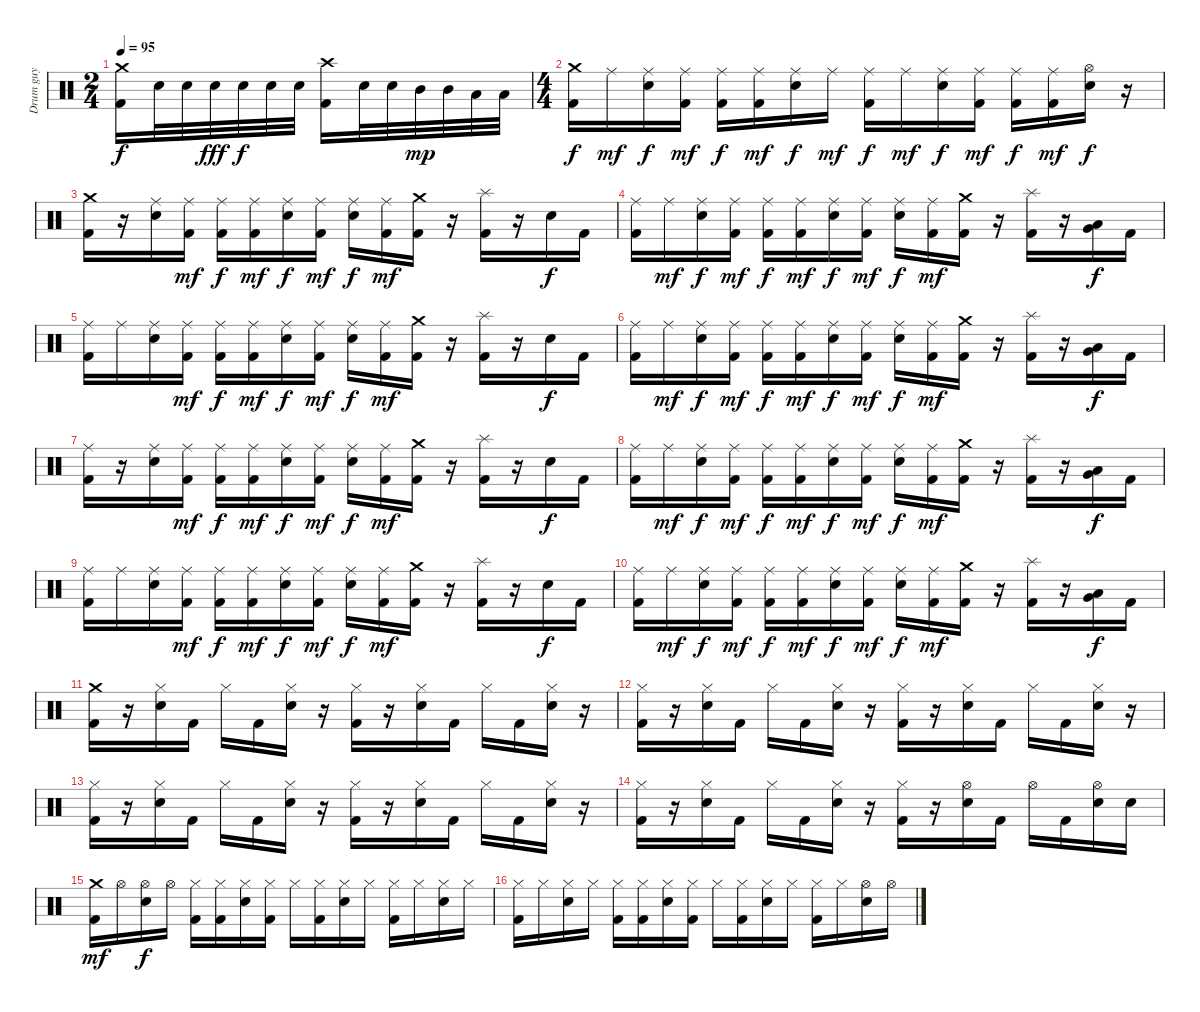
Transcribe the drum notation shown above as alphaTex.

\track ("Drum guy" "Drum guy") {instrument percussion}
\staff {score}
\articulation defaults
\ts (2 4)
\tempo 95
\clef neutral
\ks c
("Crash medium (hit)" "Kick (hit) 2").16{dy f} "Electric Snare (hit)".32 "Electric Snare (hit)".32 "Electric Snare (hit)".32{dy fff} "Electric Snare (hit)".32{dy f} "Electric Snare (hit)".32 "Electric Snare (hit)".32 ("Crash high (hit)" "Kick (hit) 2").16 "Electric Snare (hit)".32 "Electric Snare (hit)".32 "Mid Tom (hit)".32{dy mp} "Mid Tom (hit)".32 "Low Tom (hit)".32 "Low Tom (hit)".32 |
\ts (4 4)
("Crash medium (hit)" "Kick (hit) 2").16{dy f} "Ride (middle)".16{dy mf} ("Ride (middle)" "Electric Snare (hit)").16{dy f} ("Ride (middle)" "Kick (hit) 2").16{dy mf} ("Ride (middle)" "Kick (hit) 2").16{dy f} ("Ride (middle)" "Kick (hit) 2").16{dy mf} ("Ride (middle)" "Electric Snare (hit)").16{dy f} "Ride (middle)".16{dy mf} ("Ride (middle)" "Kick (hit) 2").16{dy f} "Ride (middle)".16{dy mf} ("Ride (middle)" "Electric Snare (hit)").16{dy f} ("Ride (middle)" "Kick (hit) 2").16{dy mf} ("Ride (middle)" "Kick (hit) 2").16{dy f} ("Ride (middle)" "Kick (hit) 2").16{dy mf} ("Hi-Hat (open)" "Electric Snare (hit)").16{dy f} r.16 |
("Crash medium (hit)" "Kick (hit) 2").16 r.16 ("Ride (middle)" "Electric Snare (hit)").16 ("Ride (middle)" "Kick (hit) 2").16{dy mf} ("Ride (middle)" "Kick (hit) 2").16{dy f} ("Ride (middle)" "Kick (hit) 2").16{dy mf} ("Ride (middle)" "Electric Snare (hit)").16{dy f} ("Ride (middle)" "Kick (hit) 2").16{dy mf} ("Ride (middle)" "Electric Snare (hit)").16{dy f} ("Ride (middle)" "Kick (hit) 2").16{dy mf} ("Crash medium (hit)" "Kick (hit) 2").16 r.16 ("Splash (hit)" "Kick (hit) 2").16 r.16 "Electric Snare (hit)".16{dy f} "Kick (hit) 2".16 |
("Ride (middle)" "Kick (hit) 2").16 "Ride (middle)".16{dy mf} ("Ride (middle)" "Electric Snare (hit)").16{dy f} ("Ride (middle)" "Kick (hit) 2").16{dy mf} ("Ride (middle)" "Kick (hit) 2").16{dy f} ("Ride (middle)" "Kick (hit) 2").16{dy mf} ("Ride (middle)" "Electric Snare (hit)").16{dy f} ("Ride (middle)" "Kick (hit) 2").16{dy mf} ("Ride (middle)" "Electric Snare (hit)").16{dy f} ("Ride (middle)" "Kick (hit) 2").16{dy mf} ("Crash medium (hit)" "Kick (hit) 2").16 r.16 ("Splash (hit)" "Kick (hit) 2").16 r.16 ("Low Tom (hit)" "Very Low Tom (hit)").16{dy f} "Kick (hit) 2".16 |
("Ride (middle)" "Kick (hit) 2").16 "Ride (middle)".16 ("Ride (middle)" "Electric Snare (hit)").16 ("Ride (middle)" "Kick (hit) 2").16{dy mf} ("Ride (middle)" "Kick (hit) 2").16{dy f} ("Ride (middle)" "Kick (hit) 2").16{dy mf} ("Ride (middle)" "Electric Snare (hit)").16{dy f} ("Ride (middle)" "Kick (hit) 2").16{dy mf} ("Ride (middle)" "Electric Snare (hit)").16{dy f} ("Ride (middle)" "Kick (hit) 2").16{dy mf} ("Crash medium (hit)" "Kick (hit) 2").16 r.16 ("Splash (hit)" "Kick (hit) 2").16 r.16 "Electric Snare (hit)".16{dy f} "Kick (hit) 2".16 |
("Ride (middle)" "Kick (hit) 2").16 "Ride (middle)".16{dy mf} ("Ride (middle)" "Electric Snare (hit)").16{dy f} ("Ride (middle)" "Kick (hit) 2").16{dy mf} ("Ride (middle)" "Kick (hit) 2").16{dy f} ("Ride (middle)" "Kick (hit) 2").16{dy mf} ("Ride (middle)" "Electric Snare (hit)").16{dy f} ("Ride (middle)" "Kick (hit) 2").16{dy mf} ("Ride (middle)" "Electric Snare (hit)").16{dy f} ("Ride (middle)" "Kick (hit) 2").16{dy mf} ("Crash medium (hit)" "Kick (hit) 2").16 r.16 ("Splash (hit)" "Kick (hit) 2").16 r.16 ("Low Tom (hit)" "Very Low Tom (hit)").16{dy f} "Kick (hit) 2".16 |
("Ride (middle)" "Kick (hit) 2").16 r.16 ("Ride (middle)" "Electric Snare (hit)").16 ("Ride (middle)" "Kick (hit) 2").16{dy mf} ("Ride (middle)" "Kick (hit) 2").16{dy f} ("Ride (middle)" "Kick (hit) 2").16{dy mf} ("Ride (middle)" "Electric Snare (hit)").16{dy f} ("Ride (middle)" "Kick (hit) 2").16{dy mf} ("Ride (middle)" "Electric Snare (hit)").16{dy f} ("Ride (middle)" "Kick (hit) 2").16{dy mf} ("Crash medium (hit)" "Kick (hit) 2").16 r.16 ("Splash (hit)" "Kick (hit) 2").16 r.16 "Electric Snare (hit)".16{dy f} "Kick (hit) 2".16 |
("Ride (middle)" "Kick (hit) 2").16 "Ride (middle)".16{dy mf} ("Ride (middle)" "Electric Snare (hit)").16{dy f} ("Ride (middle)" "Kick (hit) 2").16{dy mf} ("Ride (middle)" "Kick (hit) 2").16{dy f} ("Ride (middle)" "Kick (hit) 2").16{dy mf} ("Ride (middle)" "Electric Snare (hit)").16{dy f} ("Ride (middle)" "Kick (hit) 2").16{dy mf} ("Ride (middle)" "Electric Snare (hit)").16{dy f} ("Ride (middle)" "Kick (hit) 2").16{dy mf} ("Crash medium (hit)" "Kick (hit) 2").16 r.16 ("Splash (hit)" "Kick (hit) 2").16 r.16 ("Low Tom (hit)" "Very Low Tom (hit)").16{dy f} "Kick (hit) 2".16 |
("Ride (middle)" "Kick (hit) 2").16 "Ride (middle)".16 ("Ride (middle)" "Electric Snare (hit)").16 ("Ride (middle)" "Kick (hit) 2").16{dy mf} ("Ride (middle)" "Kick (hit) 2").16{dy f} ("Ride (middle)" "Kick (hit) 2").16{dy mf} ("Ride (middle)" "Electric Snare (hit)").16{dy f} ("Ride (middle)" "Kick (hit) 2").16{dy mf} ("Ride (middle)" "Electric Snare (hit)").16{dy f} ("Ride (middle)" "Kick (hit) 2").16{dy mf} ("Crash medium (hit)" "Kick (hit) 2").16 r.16 ("Splash (hit)" "Kick (hit) 2").16 r.16 "Electric Snare (hit)".16{dy f} "Kick (hit) 2".16 |
("Ride (middle)" "Kick (hit) 2").16 "Ride (middle)".16{dy mf} ("Ride (middle)" "Electric Snare (hit)").16{dy f} ("Ride (middle)" "Kick (hit) 2").16{dy mf} ("Ride (middle)" "Kick (hit) 2").16{dy f} ("Ride (middle)" "Kick (hit) 2").16{dy mf} ("Ride (middle)" "Electric Snare (hit)").16{dy f} ("Ride (middle)" "Kick (hit) 2").16{dy mf} ("Ride (middle)" "Electric Snare (hit)").16{dy f} ("Ride (middle)" "Kick (hit) 2").16{dy mf} ("Crash medium (hit)" "Kick (hit) 2").16 r.16 ("Splash (hit)" "Kick (hit) 2").16 r.16 ("Low Tom (hit)" "Very Low Tom (hit)").16{dy f} "Kick (hit) 2".16 |
("Crash medium (hit)" "Kick (hit) 2").16 r.16 ("Hi-Hat (closed)" "Electric Snare (hit)").16 "Kick (hit) 2".16 "Hi-Hat (closed)".16 "Kick (hit) 2".16 ("Hi-Hat (closed)" "Electric Snare (hit)").16 r.16 ("Hi-Hat (closed)" "Kick (hit) 2").16 r.16 ("Hi-Hat (closed)" "Electric Snare (hit)").16 "Kick (hit) 2".16 "Hi-Hat (closed)".16 "Kick (hit) 2".16 ("Hi-Hat (closed)" "Electric Snare (hit)").16 r.16 |
("Hi-Hat (closed)" "Kick (hit) 2").16 r.16 ("Hi-Hat (closed)" "Electric Snare (hit)").16 "Kick (hit) 2".16 "Hi-Hat (closed)".16 "Kick (hit) 2".16 ("Hi-Hat (closed)" "Electric Snare (hit)").16 r.16 ("Hi-Hat (closed)" "Kick (hit) 2").16 r.16 ("Hi-Hat (closed)" "Electric Snare (hit)").16 "Kick (hit) 2".16 "Hi-Hat (closed)".16 "Kick (hit) 2".16 ("Hi-Hat (closed)" "Electric Snare (hit)").16 r.16 |
("Hi-Hat (closed)" "Kick (hit) 2").16 r.16 ("Hi-Hat (closed)" "Electric Snare (hit)").16 "Kick (hit) 2".16 "Hi-Hat (closed)".16 "Kick (hit) 2".16 ("Hi-Hat (closed)" "Electric Snare (hit)").16 r.16 ("Hi-Hat (closed)" "Kick (hit) 2").16 r.16 ("Hi-Hat (closed)" "Electric Snare (hit)").16 "Kick (hit) 2".16 "Hi-Hat (closed)".16 "Kick (hit) 2".16 ("Hi-Hat (closed)" "Electric Snare (hit)").16 r.16 |
("Hi-Hat (closed)" "Kick (hit) 2").16 r.16 ("Hi-Hat (closed)" "Electric Snare (hit)").16 "Kick (hit) 2".16 "Hi-Hat (closed)".16 "Kick (hit) 2".16 ("Hi-Hat (closed)" "Electric Snare (hit)").16 r.16 ("Hi-Hat (closed)" "Kick (hit) 2").16 r.16 ("Hi-Hat (open)" "Electric Snare (hit)").16 "Kick (hit) 2".16 "Hi-Hat (open)".16 "Kick (hit) 2".16 ("Hi-Hat (open)" "Electric Snare (hit)").16 "Electric Snare (hit)".16 |
("Crash medium (hit)" "Kick (hit) 2").16{dy mf} "Hi-Hat (open)".16 ("Hi-Hat (open)" "Electric Snare (hit)").16{dy f} "Hi-Hat (open)".16 ("Hi-Hat (closed)" "Kick (hit) 2").16 ("Hi-Hat (closed)" "Kick (hit) 2").16 ("Hi-Hat (closed)" "Electric Snare (hit)").16 ("Hi-Hat (closed)" "Kick (hit) 2").16 "Hi-Hat (closed)".16 ("Hi-Hat (closed)" "Kick (hit) 2").16 ("Hi-Hat (closed)" "Electric Snare (hit)").16 "Hi-Hat (closed)".16 ("Hi-Hat (closed)" "Kick (hit) 2").16 "Hi-Hat (closed)".16 ("Hi-Hat (closed)" "Electric Snare (hit)").16 "Hi-Hat (closed)".16 |
("Hi-Hat (closed)" "Kick (hit) 2").16 "Hi-Hat (closed)".16 ("Hi-Hat (closed)" "Electric Snare (hit)").16 "Hi-Hat (closed)".16 ("Hi-Hat (closed)" "Kick (hit) 2").16 ("Hi-Hat (closed)" "Kick (hit) 2").16 ("Hi-Hat (closed)" "Electric Snare (hit)").16 ("Hi-Hat (closed)" "Kick (hit) 2").16 "Hi-Hat (closed)".16 ("Hi-Hat (closed)" "Kick (hit) 2").16 ("Hi-Hat (closed)" "Electric Snare (hit)").16 "Hi-Hat (closed)".16 ("Hi-Hat (closed)" "Kick (hit) 2").16 "Hi-Hat (closed)".16 ("Hi-Hat (open)" "Electric Snare (hit)").16 "Hi-Hat (open)".16
